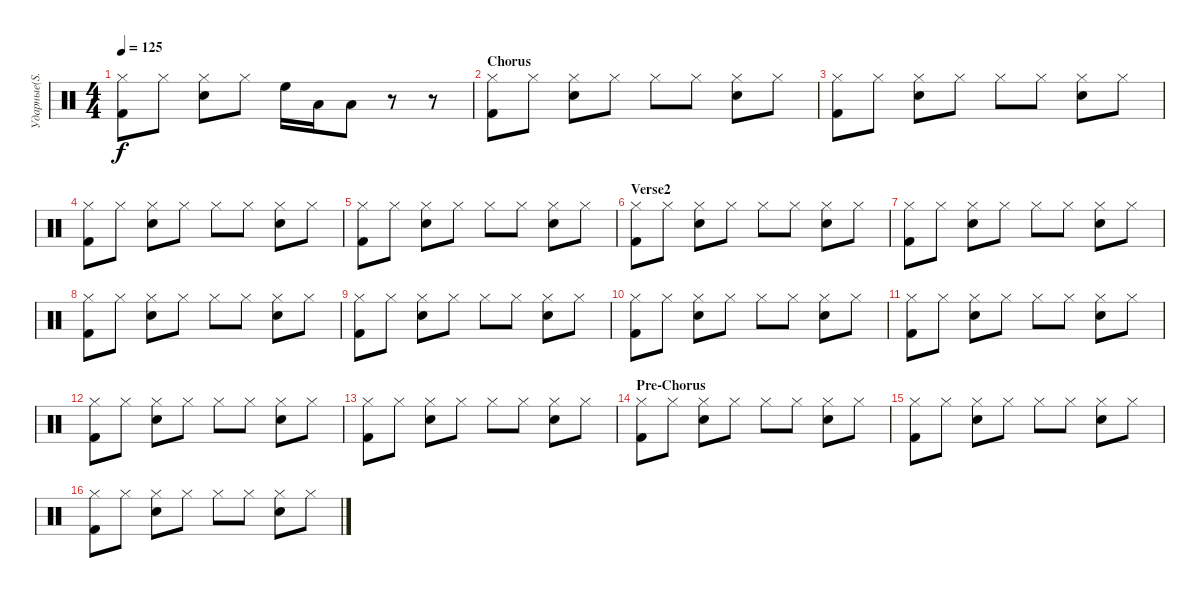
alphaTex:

\track ("Ударные(S. Travis)" "Ударные(S.") {instrument percussion}
\staff {score}
\articulation defaults
\ts (4 4)
\tempo 125
\clef neutral
\ks c
("Hi-Hat (closed)" "Kick (hit) 2").8{dy f} "Hi-Hat (closed)".8 ("Hi-Hat (closed)" "Snare (hit) 2").8 "Hi-Hat (closed)".8 "High Floor Tom (hit)".16 "Low Tom (hit)".16 "Low Tom (hit)".8 r.8 r.8 |
\section ("" "Chorus")
("Hi-Hat (closed)" "Kick (hit) 2").8 "Hi-Hat (closed)".8 ("Hi-Hat (closed)" "Snare (hit) 2").8 "Hi-Hat (closed)".8 "Hi-Hat (closed)".8 "Hi-Hat (closed)".8 ("Hi-Hat (closed)" "Snare (hit) 2").8 "Hi-Hat (closed)".8 |
("Hi-Hat (closed)" "Kick (hit) 2").8 "Hi-Hat (closed)".8 ("Hi-Hat (closed)" "Snare (hit) 2").8 "Hi-Hat (closed)".8 "Hi-Hat (closed)".8 "Hi-Hat (closed)".8 ("Hi-Hat (closed)" "Snare (hit) 2").8 "Hi-Hat (closed)".8 |
("Hi-Hat (closed)" "Kick (hit) 2").8 "Hi-Hat (closed)".8 ("Hi-Hat (closed)" "Snare (hit) 2").8 "Hi-Hat (closed)".8 "Hi-Hat (closed)".8 "Hi-Hat (closed)".8 ("Hi-Hat (closed)" "Snare (hit) 2").8 "Hi-Hat (closed)".8 |
("Hi-Hat (closed)" "Kick (hit) 2").8 "Hi-Hat (closed)".8 ("Hi-Hat (closed)" "Snare (hit) 2").8 "Hi-Hat (closed)".8 "Hi-Hat (closed)".8 "Hi-Hat (closed)".8 ("Hi-Hat (closed)" "Snare (hit) 2").8 "Hi-Hat (closed)".8 |
\section ("" "Verse2")
("Hi-Hat (closed)" "Kick (hit) 2").8 "Hi-Hat (closed)".8 ("Hi-Hat (closed)" "Snare (hit) 2").8 "Hi-Hat (closed)".8 "Hi-Hat (closed)".8 "Hi-Hat (closed)".8 ("Hi-Hat (closed)" "Snare (hit) 2").8 "Hi-Hat (closed)".8 |
("Hi-Hat (closed)" "Kick (hit) 2").8 "Hi-Hat (closed)".8 ("Hi-Hat (closed)" "Snare (hit) 2").8 "Hi-Hat (closed)".8 "Hi-Hat (closed)".8 "Hi-Hat (closed)".8 ("Hi-Hat (closed)" "Snare (hit) 2").8 "Hi-Hat (closed)".8 |
("Hi-Hat (closed)" "Kick (hit) 2").8 "Hi-Hat (closed)".8 ("Hi-Hat (closed)" "Snare (hit) 2").8 "Hi-Hat (closed)".8 "Hi-Hat (closed)".8 "Hi-Hat (closed)".8 ("Hi-Hat (closed)" "Snare (hit) 2").8 "Hi-Hat (closed)".8 |
("Hi-Hat (closed)" "Kick (hit) 2").8 "Hi-Hat (closed)".8 ("Hi-Hat (closed)" "Snare (hit) 2").8 "Hi-Hat (closed)".8 "Hi-Hat (closed)".8 "Hi-Hat (closed)".8 ("Hi-Hat (closed)" "Snare (hit) 2").8 "Hi-Hat (closed)".8 |
("Hi-Hat (closed)" "Kick (hit) 2").8 "Hi-Hat (closed)".8 ("Hi-Hat (closed)" "Snare (hit) 2").8 "Hi-Hat (closed)".8 "Hi-Hat (closed)".8 "Hi-Hat (closed)".8 ("Hi-Hat (closed)" "Snare (hit) 2").8 "Hi-Hat (closed)".8 |
("Hi-Hat (closed)" "Kick (hit) 2").8 "Hi-Hat (closed)".8 ("Hi-Hat (closed)" "Snare (hit) 2").8 "Hi-Hat (closed)".8 "Hi-Hat (closed)".8 "Hi-Hat (closed)".8 ("Hi-Hat (closed)" "Snare (hit) 2").8 "Hi-Hat (closed)".8 |
("Hi-Hat (closed)" "Kick (hit) 2").8 "Hi-Hat (closed)".8 ("Hi-Hat (closed)" "Snare (hit) 2").8 "Hi-Hat (closed)".8 "Hi-Hat (closed)".8 "Hi-Hat (closed)".8 ("Hi-Hat (closed)" "Snare (hit) 2").8 "Hi-Hat (closed)".8 |
("Hi-Hat (closed)" "Kick (hit) 2").8 "Hi-Hat (closed)".8 ("Hi-Hat (closed)" "Snare (hit) 2").8 "Hi-Hat (closed)".8 "Hi-Hat (closed)".8 "Hi-Hat (closed)".8 ("Hi-Hat (closed)" "Snare (hit) 2").8 "Hi-Hat (closed)".8 |
\section ("" "Pre-Chorus")
("Hi-Hat (closed)" "Kick (hit) 2").8 "Hi-Hat (closed)".8 ("Hi-Hat (closed)" "Snare (hit) 2").8 "Hi-Hat (closed)".8 "Hi-Hat (closed)".8 "Hi-Hat (closed)".8 ("Hi-Hat (closed)" "Snare (hit) 2").8 "Hi-Hat (closed)".8 |
("Hi-Hat (closed)" "Kick (hit) 2").8 "Hi-Hat (closed)".8 ("Hi-Hat (closed)" "Snare (hit) 2").8 "Hi-Hat (closed)".8 "Hi-Hat (closed)".8 "Hi-Hat (closed)".8 ("Hi-Hat (closed)" "Snare (hit) 2").8 "Hi-Hat (closed)".8 |
("Hi-Hat (closed)" "Kick (hit) 2").8 "Hi-Hat (closed)".8 ("Hi-Hat (closed)" "Snare (hit) 2").8 "Hi-Hat (closed)".8 "Hi-Hat (closed)".8 "Hi-Hat (closed)".8 ("Hi-Hat (closed)" "Snare (hit) 2").8 "Hi-Hat (closed)".8
